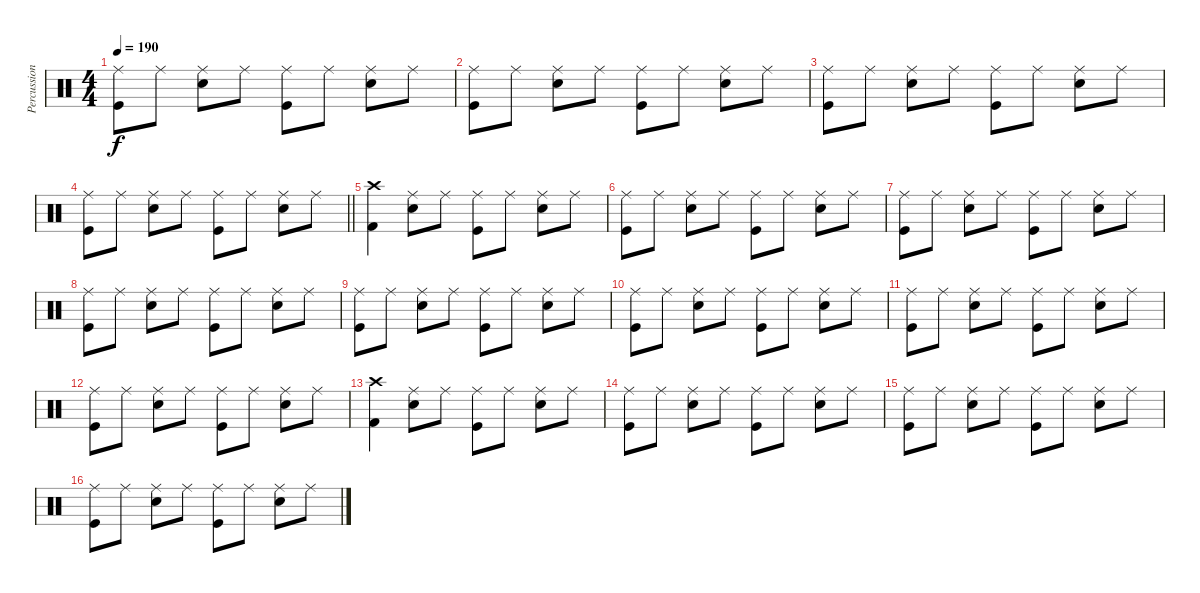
\track ("Percussion" "Percussion") {instrument percussion}
\staff {score}
\articulation defaults
\ts (4 4)
\tempo 190
\clef neutral
\ks c
("Ride (middle)" "Kick (hit)").8{dy f} "Ride (middle)".8 ("Ride (middle)" "Snare (hit) 2").8 "Ride (middle)".8 ("Ride (middle)" "Kick (hit)").8 "Ride (middle)".8 ("Ride (middle)" "Snare (hit) 2").8 "Ride (middle)".8 |
("Ride (middle)" "Kick (hit)").8 "Ride (middle)".8 ("Ride (middle)" "Snare (hit) 2").8 "Ride (middle)".8 ("Ride (middle)" "Kick (hit)").8 "Ride (middle)".8 ("Ride (middle)" "Snare (hit) 2").8 "Ride (middle)".8 |
("Ride (middle)" "Kick (hit)").8 "Ride (middle)".8 ("Ride (middle)" "Snare (hit) 2").8 "Ride (middle)".8 ("Ride (middle)" "Kick (hit)").8 "Ride (middle)".8 ("Ride (middle)" "Snare (hit) 2").8 "Ride (middle)".8 |
\barLineRight lightlight
("Ride (middle)" "Kick (hit)").8 "Ride (middle)".8 ("Ride (middle)" "Snare (hit) 2").8 "Ride (middle)".8 ("Ride (middle)" "Kick (hit)").8 "Ride (middle)".8 ("Ride (middle)" "Snare (hit) 2").8 "Ride (middle)".8 |
\section ("" "")
("Crash high (hit)" "Kick (hit) 2").4 ("Ride (middle)" "Snare (hit) 2").8 "Ride (middle)".8 ("Ride (middle)" "Kick (hit)").8 "Ride (middle)".8 ("Ride (middle)" "Snare (hit) 2").8 "Ride (middle)".8 |
("Ride (middle)" "Kick (hit)").8 "Ride (middle)".8 ("Ride (middle)" "Snare (hit) 2").8 "Ride (middle)".8 ("Ride (middle)" "Kick (hit)").8 "Ride (middle)".8 ("Ride (middle)" "Snare (hit) 2").8 "Ride (middle)".8 |
("Ride (middle)" "Kick (hit)").8 "Ride (middle)".8 ("Ride (middle)" "Snare (hit) 2").8 "Ride (middle)".8 ("Ride (middle)" "Kick (hit)").8 "Ride (middle)".8 ("Ride (middle)" "Snare (hit) 2").8 "Ride (middle)".8 |
("Ride (middle)" "Kick (hit)").8 "Ride (middle)".8 ("Ride (middle)" "Snare (hit) 2").8 "Ride (middle)".8 ("Ride (middle)" "Kick (hit)").8 "Ride (middle)".8 ("Ride (middle)" "Snare (hit) 2").8 "Ride (middle)".8 |
("Ride (middle)" "Kick (hit)").8 "Ride (middle)".8 ("Ride (middle)" "Snare (hit) 2").8 "Ride (middle)".8 ("Ride (middle)" "Kick (hit)").8 "Ride (middle)".8 ("Ride (middle)" "Snare (hit) 2").8 "Ride (middle)".8 |
("Ride (middle)" "Kick (hit)").8 "Ride (middle)".8 ("Ride (middle)" "Snare (hit) 2").8 "Ride (middle)".8 ("Ride (middle)" "Kick (hit)").8 "Ride (middle)".8 ("Ride (middle)" "Snare (hit) 2").8 "Ride (middle)".8 |
("Ride (middle)" "Kick (hit)").8 "Ride (middle)".8 ("Ride (middle)" "Snare (hit) 2").8 "Ride (middle)".8 ("Ride (middle)" "Kick (hit)").8 "Ride (middle)".8 ("Ride (middle)" "Snare (hit) 2").8 "Ride (middle)".8 |
("Ride (middle)" "Kick (hit)").8 "Ride (middle)".8 ("Ride (middle)" "Snare (hit) 2").8 "Ride (middle)".8 ("Ride (middle)" "Kick (hit)").8 "Ride (middle)".8 ("Ride (middle)" "Snare (hit) 2").8 "Ride (middle)".8 |
("Crash high (hit)" "Kick (hit) 2").4 ("Ride (middle)" "Snare (hit) 2").8 "Ride (middle)".8 ("Ride (middle)" "Kick (hit)").8 "Ride (middle)".8 ("Ride (middle)" "Snare (hit) 2").8 "Ride (middle)".8 |
("Ride (middle)" "Kick (hit)").8 "Ride (middle)".8 ("Ride (middle)" "Snare (hit) 2").8 "Ride (middle)".8 ("Ride (middle)" "Kick (hit)").8 "Ride (middle)".8 ("Ride (middle)" "Snare (hit) 2").8 "Ride (middle)".8 |
("Ride (middle)" "Kick (hit)").8 "Ride (middle)".8 ("Ride (middle)" "Snare (hit) 2").8 "Ride (middle)".8 ("Ride (middle)" "Kick (hit)").8 "Ride (middle)".8 ("Ride (middle)" "Snare (hit) 2").8 "Ride (middle)".8 |
("Ride (middle)" "Kick (hit)").8 "Ride (middle)".8 ("Ride (middle)" "Snare (hit) 2").8 "Ride (middle)".8 ("Ride (middle)" "Kick (hit)").8 "Ride (middle)".8 ("Ride (middle)" "Snare (hit) 2").8 "Ride (middle)".8
